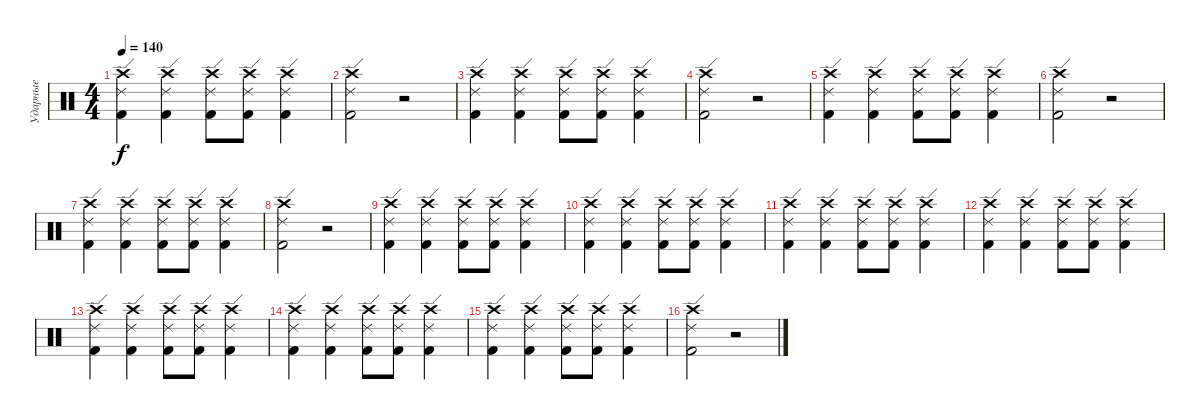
\track ("Ударные" "Ударные") {instrument percussion}
\staff {score}
\articulation defaults
\ts (4 4)
\tempo 140
\clef neutral
\ks c
("Crash high (hit)" "Ride (edge) 2" "Kick (hit) 2").4{dy f} ("Crash high (hit)" "Ride (edge) 2" "Kick (hit) 2").4 ("Crash high (hit)" "Ride (edge) 2" "Kick (hit) 2").8 ("Crash high (hit)" "Ride (edge) 2" "Kick (hit) 2").8 ("Crash high (hit)" "Ride (edge) 2" "Kick (hit) 2").4 |
("Crash high (hit)" "Ride (edge) 2" "Kick (hit) 2").2 r.2 |
("Crash high (hit)" "Ride (edge) 2" "Kick (hit) 2").4 ("Crash high (hit)" "Ride (edge) 2" "Kick (hit) 2").4 ("Crash high (hit)" "Ride (edge) 2" "Kick (hit) 2").8 ("Crash high (hit)" "Ride (edge) 2" "Kick (hit) 2").8 ("Crash high (hit)" "Ride (edge) 2" "Kick (hit) 2").4 |
("Crash high (hit)" "Ride (edge) 2" "Kick (hit) 2").2 r.2 |
("Crash high (hit)" "Ride (edge) 2" "Kick (hit) 2").4 ("Crash high (hit)" "Ride (edge) 2" "Kick (hit) 2").4 ("Crash high (hit)" "Ride (edge) 2" "Kick (hit) 2").8 ("Crash high (hit)" "Ride (edge) 2" "Kick (hit) 2").8 ("Crash high (hit)" "Ride (edge) 2" "Kick (hit) 2").4 |
("Crash high (hit)" "Ride (edge) 2" "Kick (hit) 2").2 r.2 |
("Crash high (hit)" "Ride (edge) 2" "Kick (hit) 2").4 ("Crash high (hit)" "Ride (edge) 2" "Kick (hit) 2").4 ("Crash high (hit)" "Ride (edge) 2" "Kick (hit) 2").8 ("Crash high (hit)" "Ride (edge) 2" "Kick (hit) 2").8 ("Crash high (hit)" "Ride (edge) 2" "Kick (hit) 2").4 |
("Crash high (hit)" "Ride (edge) 2" "Kick (hit) 2").2 r.2 |
("Crash high (hit)" "Ride (edge) 2" "Kick (hit) 2").4 ("Crash high (hit)" "Ride (edge) 2" "Kick (hit) 2").4 ("Crash high (hit)" "Ride (edge) 2" "Kick (hit) 2").8 ("Crash high (hit)" "Ride (edge) 2" "Kick (hit) 2").8 ("Crash high (hit)" "Ride (edge) 2" "Kick (hit) 2").4 |
("Crash high (hit)" "Ride (edge) 2" "Kick (hit) 2").4 ("Crash high (hit)" "Ride (edge) 2" "Kick (hit) 2").4 ("Crash high (hit)" "Ride (edge) 2" "Kick (hit) 2").8 ("Crash high (hit)" "Ride (edge) 2" "Kick (hit) 2").8 ("Crash high (hit)" "Ride (edge) 2" "Kick (hit) 2").4 |
("Crash high (hit)" "Ride (edge) 2" "Kick (hit) 2").4 ("Crash high (hit)" "Ride (edge) 2" "Kick (hit) 2").4 ("Crash high (hit)" "Ride (edge) 2" "Kick (hit) 2").8 ("Crash high (hit)" "Ride (edge) 2" "Kick (hit) 2").8 ("Crash high (hit)" "Ride (edge) 2" "Kick (hit) 2").4 |
("Crash high (hit)" "Ride (edge) 2" "Kick (hit) 2").4 ("Crash high (hit)" "Ride (edge) 2" "Kick (hit) 2").4 ("Crash high (hit)" "Ride (edge) 2" "Kick (hit) 2").8 ("Crash high (hit)" "Ride (edge) 2" "Kick (hit) 2").8 ("Crash high (hit)" "Ride (edge) 2" "Kick (hit) 2").4 |
("Crash high (hit)" "Ride (edge) 2" "Kick (hit) 2").4 ("Crash high (hit)" "Ride (edge) 2" "Kick (hit) 2").4 ("Crash high (hit)" "Ride (edge) 2" "Kick (hit) 2").8 ("Crash high (hit)" "Ride (edge) 2" "Kick (hit) 2").8 ("Crash high (hit)" "Ride (edge) 2" "Kick (hit) 2").4 |
("Crash high (hit)" "Ride (edge) 2" "Kick (hit) 2").4 ("Crash high (hit)" "Ride (edge) 2" "Kick (hit) 2").4 ("Crash high (hit)" "Ride (edge) 2" "Kick (hit) 2").8 ("Crash high (hit)" "Ride (edge) 2" "Kick (hit) 2").8 ("Crash high (hit)" "Ride (edge) 2" "Kick (hit) 2").4 |
("Crash high (hit)" "Ride (edge) 2" "Kick (hit) 2").4 ("Crash high (hit)" "Ride (edge) 2" "Kick (hit) 2").4 ("Crash high (hit)" "Ride (edge) 2" "Kick (hit) 2").8 ("Crash high (hit)" "Ride (edge) 2" "Kick (hit) 2").8 ("Crash high (hit)" "Ride (edge) 2" "Kick (hit) 2").4 |
("Crash high (hit)" "Ride (edge) 2" "Kick (hit) 2").2 r.2
